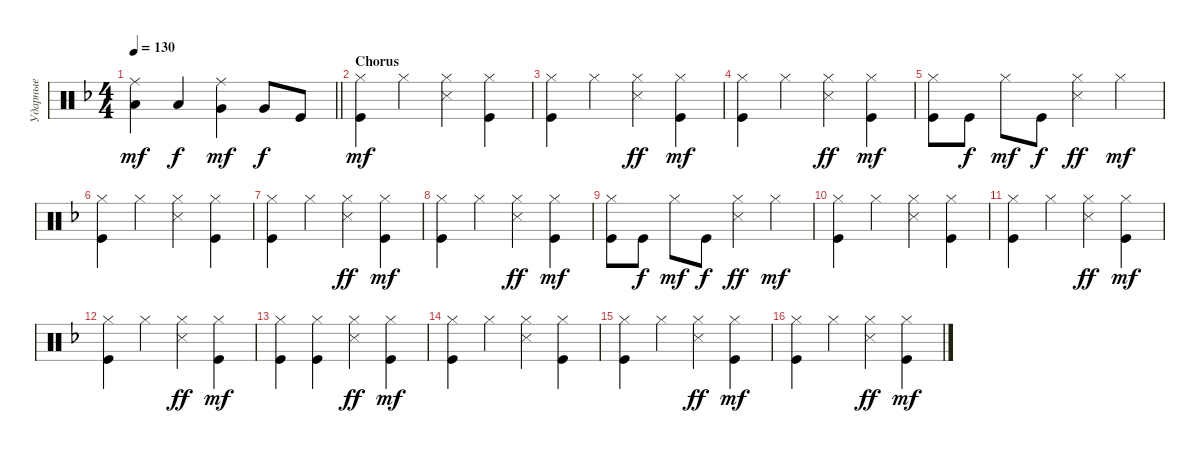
\track ("Ударные" "Ударные") {instrument percussion}
\staff {score}
\articulation defaults
\ts (4 4)
\tempo 130
\clef neutral
\barLineRight lightlight
\ks dminor
("Low Tom (hit)" "Ride (middle)").4{dy mf} "Low Tom (hit)".4{dy f} ("Very Low Tom (hit)" "Ride (middle)").4{dy mf} "Very Low Tom (hit)".8{dy f} "Kick (hit)".8 |
\section ("" "Chorus")
("Kick (hit)" "Hi-Hat (closed)").4{dy mf} "Hi-Hat (closed)".4 ("Snare (side stick) 3" "Hi-Hat (closed)").4 ("Kick (hit)" "Hi-Hat (closed)").4 |
("Hi-Hat (closed)" "Kick (hit)").4 "Hi-Hat (closed)".4 ("Hi-Hat (closed)" "Snare (side stick) 3").4{dy ff} ("Hi-Hat (closed)" "Kick (hit)").4{dy mf} |
("Hi-Hat (closed)" "Kick (hit)").4 "Hi-Hat (closed)".4 ("Hi-Hat (closed)" "Snare (side stick) 3").4{dy ff} ("Hi-Hat (closed)" "Kick (hit)").4{dy mf} |
("Hi-Hat (closed)" "Kick (hit)").8 "Kick (hit)".8{dy f} "Hi-Hat (closed)".8{dy mf} "Kick (hit)".8{dy f} ("Hi-Hat (closed)" "Snare (side stick) 3").4{dy ff} "Hi-Hat (closed)".4{dy mf} |
("Kick (hit)" "Hi-Hat (closed)").4 "Hi-Hat (closed)".4 ("Snare (side stick) 3" "Hi-Hat (closed)").4 ("Kick (hit)" "Hi-Hat (closed)").4 |
("Hi-Hat (closed)" "Kick (hit)").4 "Hi-Hat (closed)".4 ("Hi-Hat (closed)" "Snare (side stick) 3").4{dy ff} ("Hi-Hat (closed)" "Kick (hit)").4{dy mf} |
("Hi-Hat (closed)" "Kick (hit)").4 "Hi-Hat (closed)".4 ("Hi-Hat (closed)" "Snare (side stick) 3").4{dy ff} ("Hi-Hat (closed)" "Kick (hit)").4{dy mf} |
("Hi-Hat (closed)" "Kick (hit)").8 "Kick (hit)".8{dy f} "Hi-Hat (closed)".8{dy mf} "Kick (hit)".8{dy f} ("Hi-Hat (closed)" "Snare (side stick) 3").4{dy ff} "Hi-Hat (closed)".4{dy mf} |
("Kick (hit)" "Hi-Hat (closed)").4 "Hi-Hat (closed)".4 ("Snare (side stick) 3" "Hi-Hat (closed)").4 ("Kick (hit)" "Hi-Hat (closed)").4 |
("Hi-Hat (closed)" "Kick (hit)").4 "Hi-Hat (closed)".4 ("Hi-Hat (closed)" "Snare (side stick) 3").4{dy ff} ("Hi-Hat (closed)" "Kick (hit)").4{dy mf} |
("Hi-Hat (closed)" "Kick (hit)").4 "Hi-Hat (closed)".4 ("Hi-Hat (closed)" "Snare (side stick) 3").4{dy ff} ("Hi-Hat (closed)" "Kick (hit)").4{dy mf} |
("Hi-Hat (closed)" "Kick (hit)").4 ("Hi-Hat (closed)" "Kick (hit)").4 ("Hi-Hat (closed)" "Snare (side stick) 3").4{dy ff} ("Hi-Hat (closed)" "Kick (hit)").4{dy mf} |
("Kick (hit)" "Hi-Hat (closed)").4 "Hi-Hat (closed)".4 ("Snare (side stick) 3" "Hi-Hat (closed)").4 ("Kick (hit)" "Hi-Hat (closed)").4 |
("Hi-Hat (closed)" "Kick (hit)").4 "Hi-Hat (closed)".4 ("Hi-Hat (closed)" "Snare (side stick) 3").4{dy ff} ("Hi-Hat (closed)" "Kick (hit)").4{dy mf} |
("Hi-Hat (closed)" "Kick (hit)").4 "Hi-Hat (closed)".4 ("Hi-Hat (closed)" "Snare (side stick) 3").4{dy ff} ("Hi-Hat (closed)" "Kick (hit)").4{dy mf}
